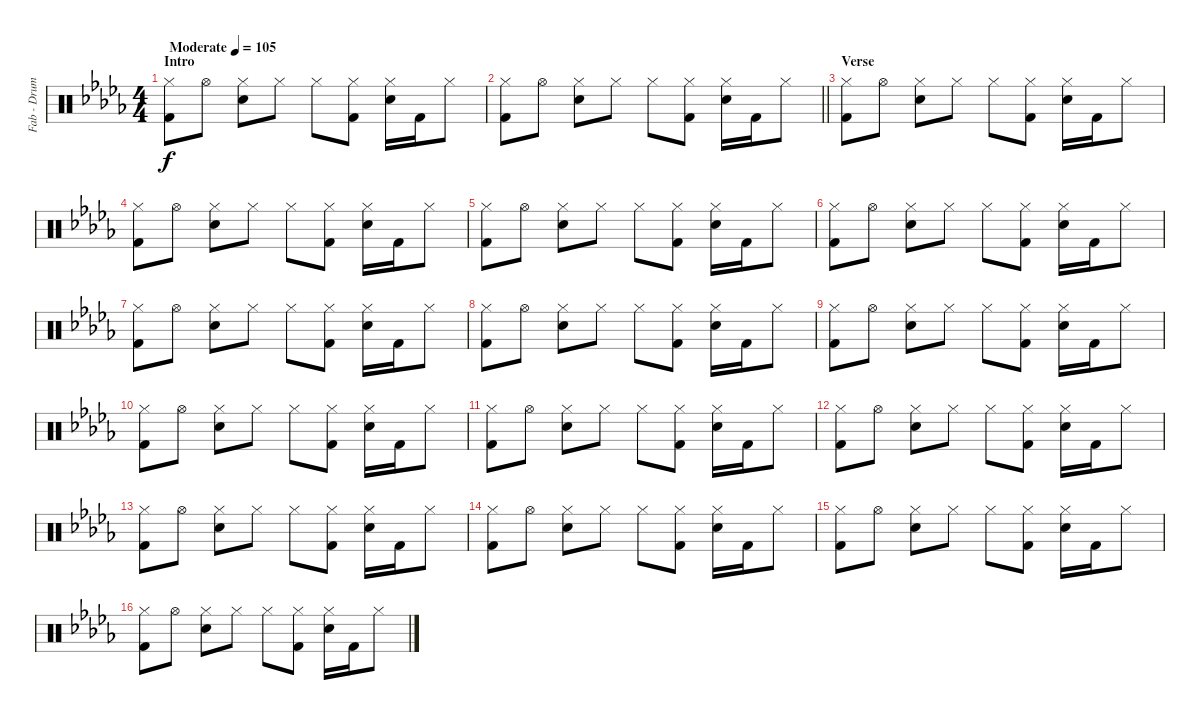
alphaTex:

\track ("Fab - Drums MIDI" "Fab - Drum") {instrument percussion}
\staff {score}
\articulation defaults
\ts (4 4)
\section ("" "Intro")
\tempo (105 "Moderate")
\clef neutral
\ks db
("Hi-Hat (closed)" "Kick (hit) 2").8{dy f} "Hi-Hat (open)".8 ("Hi-Hat (closed)" "Snare (hit) 2").8 "Hi-Hat (closed)".8 "Hi-Hat (closed)".8 ("Hi-Hat (closed)" "Kick (hit) 2").8 ("Hi-Hat (closed)" "Snare (hit) 2").16 "Kick (hit) 2".16 "Hi-Hat (closed)".8 |
\barLineRight lightlight
("Hi-Hat (closed)" "Kick (hit) 2").8 "Hi-Hat (open)".8 ("Hi-Hat (closed)" "Snare (hit) 2").8 "Hi-Hat (closed)".8 "Hi-Hat (closed)".8 ("Hi-Hat (closed)" "Kick (hit) 2").8 ("Hi-Hat (closed)" "Snare (hit) 2").16 "Kick (hit) 2".16 "Hi-Hat (closed)".8 |
\section ("" "Verse")
("Hi-Hat (closed)" "Kick (hit) 2").8 "Hi-Hat (open)".8 ("Hi-Hat (closed)" "Snare (hit) 2").8 "Hi-Hat (closed)".8 "Hi-Hat (closed)".8 ("Hi-Hat (closed)" "Kick (hit) 2").8 ("Hi-Hat (closed)" "Snare (hit) 2").16 "Kick (hit) 2".16 "Hi-Hat (closed)".8 |
("Hi-Hat (closed)" "Kick (hit) 2").8 "Hi-Hat (open)".8 ("Hi-Hat (closed)" "Snare (hit) 2").8 "Hi-Hat (closed)".8 "Hi-Hat (closed)".8 ("Hi-Hat (closed)" "Kick (hit) 2").8 ("Hi-Hat (closed)" "Snare (hit) 2").16 "Kick (hit) 2".16 "Hi-Hat (closed)".8 |
("Hi-Hat (closed)" "Kick (hit) 2").8 "Hi-Hat (open)".8 ("Hi-Hat (closed)" "Snare (hit) 2").8 "Hi-Hat (closed)".8 "Hi-Hat (closed)".8 ("Hi-Hat (closed)" "Kick (hit) 2").8 ("Hi-Hat (closed)" "Snare (hit) 2").16 "Kick (hit) 2".16 "Hi-Hat (closed)".8 |
("Hi-Hat (closed)" "Kick (hit) 2").8 "Hi-Hat (open)".8 ("Hi-Hat (closed)" "Snare (hit) 2").8 "Hi-Hat (closed)".8 "Hi-Hat (closed)".8 ("Hi-Hat (closed)" "Kick (hit) 2").8 ("Hi-Hat (closed)" "Snare (hit) 2").16 "Kick (hit) 2".16 "Hi-Hat (closed)".8 |
("Hi-Hat (closed)" "Kick (hit) 2").8 "Hi-Hat (open)".8 ("Hi-Hat (closed)" "Snare (hit) 2").8 "Hi-Hat (closed)".8 "Hi-Hat (closed)".8 ("Hi-Hat (closed)" "Kick (hit) 2").8 ("Hi-Hat (closed)" "Snare (hit) 2").16 "Kick (hit) 2".16 "Hi-Hat (closed)".8 |
("Hi-Hat (closed)" "Kick (hit) 2").8 "Hi-Hat (open)".8 ("Hi-Hat (closed)" "Snare (hit) 2").8 "Hi-Hat (closed)".8 "Hi-Hat (closed)".8 ("Hi-Hat (closed)" "Kick (hit) 2").8 ("Hi-Hat (closed)" "Snare (hit) 2").16 "Kick (hit) 2".16 "Hi-Hat (closed)".8 |
("Hi-Hat (closed)" "Kick (hit) 2").8 "Hi-Hat (open)".8 ("Hi-Hat (closed)" "Snare (hit) 2").8 "Hi-Hat (closed)".8 "Hi-Hat (closed)".8 ("Hi-Hat (closed)" "Kick (hit) 2").8 ("Hi-Hat (closed)" "Snare (hit) 2").16 "Kick (hit) 2".16 "Hi-Hat (closed)".8 |
("Hi-Hat (closed)" "Kick (hit) 2").8 "Hi-Hat (open)".8 ("Hi-Hat (closed)" "Snare (hit) 2").8 "Hi-Hat (closed)".8 "Hi-Hat (closed)".8 ("Hi-Hat (closed)" "Kick (hit) 2").8 ("Hi-Hat (closed)" "Snare (hit) 2").16 "Kick (hit) 2".16 "Hi-Hat (closed)".8 |
("Hi-Hat (closed)" "Kick (hit) 2").8 "Hi-Hat (open)".8 ("Hi-Hat (closed)" "Snare (hit) 2").8 "Hi-Hat (closed)".8 "Hi-Hat (closed)".8 ("Hi-Hat (closed)" "Kick (hit) 2").8 ("Hi-Hat (closed)" "Snare (hit) 2").16 "Kick (hit) 2".16 "Hi-Hat (closed)".8 |
("Hi-Hat (closed)" "Kick (hit) 2").8 "Hi-Hat (open)".8 ("Hi-Hat (closed)" "Snare (hit) 2").8 "Hi-Hat (closed)".8 "Hi-Hat (closed)".8 ("Hi-Hat (closed)" "Kick (hit) 2").8 ("Hi-Hat (closed)" "Snare (hit) 2").16 "Kick (hit) 2".16 "Hi-Hat (closed)".8 |
("Hi-Hat (closed)" "Kick (hit) 2").8 "Hi-Hat (open)".8 ("Hi-Hat (closed)" "Snare (hit) 2").8 "Hi-Hat (closed)".8 "Hi-Hat (closed)".8 ("Hi-Hat (closed)" "Kick (hit) 2").8 ("Hi-Hat (closed)" "Snare (hit) 2").16 "Kick (hit) 2".16 "Hi-Hat (closed)".8 |
("Hi-Hat (closed)" "Kick (hit) 2").8 "Hi-Hat (open)".8 ("Hi-Hat (closed)" "Snare (hit) 2").8 "Hi-Hat (closed)".8 "Hi-Hat (closed)".8 ("Hi-Hat (closed)" "Kick (hit) 2").8 ("Hi-Hat (closed)" "Snare (hit) 2").16 "Kick (hit) 2".16 "Hi-Hat (closed)".8 |
("Hi-Hat (closed)" "Kick (hit) 2").8 "Hi-Hat (open)".8 ("Hi-Hat (closed)" "Snare (hit) 2").8 "Hi-Hat (closed)".8 "Hi-Hat (closed)".8 ("Hi-Hat (closed)" "Kick (hit) 2").8 ("Hi-Hat (closed)" "Snare (hit) 2").16 "Kick (hit) 2".16 "Hi-Hat (closed)".8 |
("Hi-Hat (closed)" "Kick (hit) 2").8 "Hi-Hat (open)".8 ("Hi-Hat (closed)" "Snare (hit) 2").8 "Hi-Hat (closed)".8 "Hi-Hat (closed)".8 ("Hi-Hat (closed)" "Kick (hit) 2").8 ("Hi-Hat (closed)" "Snare (hit) 2").16 "Kick (hit) 2".16 "Hi-Hat (closed)".8
